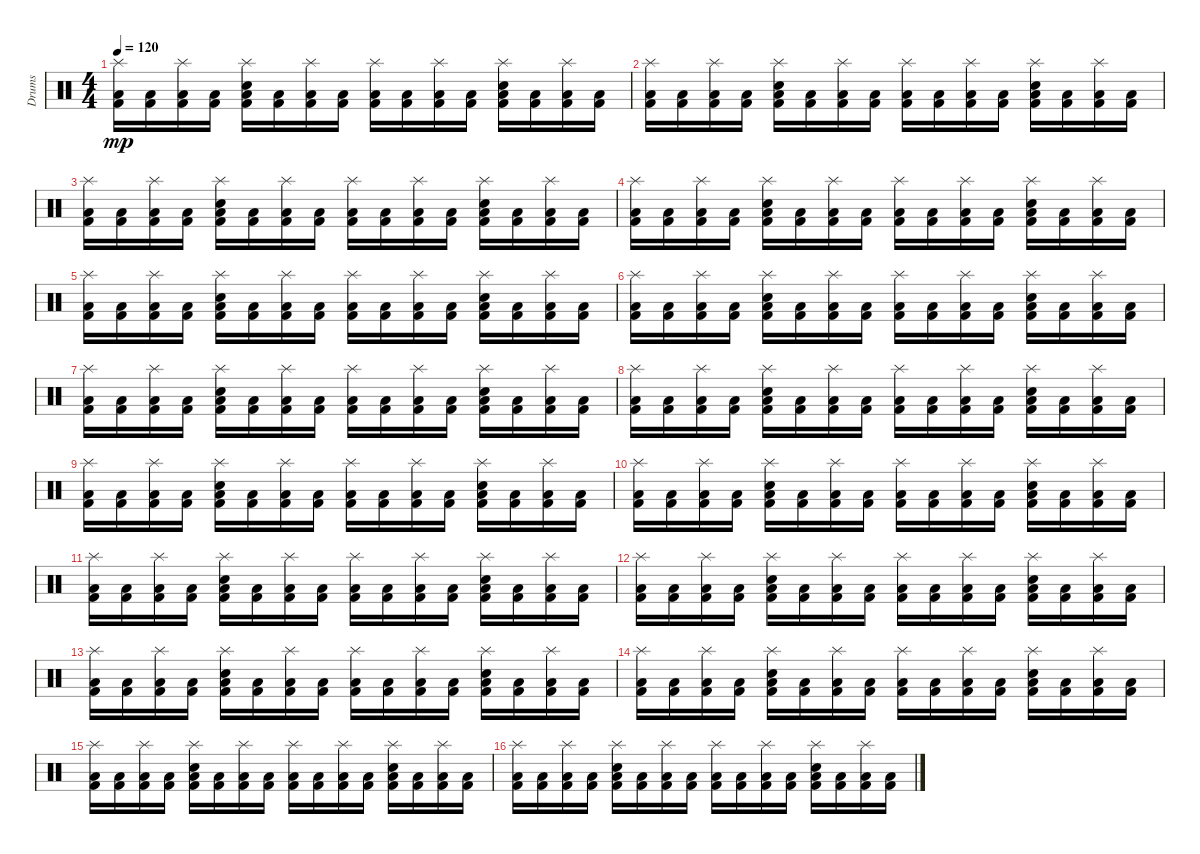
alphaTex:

\track ("Drums" "Drums") {instrument percussion}
\staff {score}
\articulation defaults
\ts (4 4)
\tempo 120
\clef neutral
\ks c
("Splash (hit)" "Low Floor Tom (hit)" "Kick (hit) 2").16{dy mp} ("Low Floor Tom (hit)" "Kick (hit) 2").16 ("Splash (hit)" "Low Floor Tom (hit)" "Kick (hit) 2").16 ("Low Floor Tom (hit)" "Kick (hit) 2").16 ("Splash (hit)" "Snare (hit) 2" "Low Floor Tom (hit)" "Kick (hit) 2").16 ("Low Floor Tom (hit)" "Kick (hit) 2").16 ("Splash (hit)" "Low Floor Tom (hit)" "Kick (hit) 2").16 ("Low Floor Tom (hit)" "Kick (hit) 2").16 ("Splash (hit)" "Low Floor Tom (hit)" "Kick (hit) 2").16 ("Low Floor Tom (hit)" "Kick (hit) 2").16 ("Splash (hit)" "Low Floor Tom (hit)" "Kick (hit) 2").16 ("Low Floor Tom (hit)" "Kick (hit) 2").16 ("Splash (hit)" "Snare (hit) 2" "Low Floor Tom (hit)" "Kick (hit) 2").16 ("Low Floor Tom (hit)" "Kick (hit) 2").16 ("Splash (hit)" "Low Floor Tom (hit)" "Kick (hit) 2").16 ("Low Floor Tom (hit)" "Kick (hit) 2").16 |
("Splash (hit)" "Low Floor Tom (hit)" "Kick (hit) 2").16 ("Low Floor Tom (hit)" "Kick (hit) 2").16 ("Splash (hit)" "Low Floor Tom (hit)" "Kick (hit) 2").16 ("Low Floor Tom (hit)" "Kick (hit) 2").16 ("Splash (hit)" "Snare (hit) 2" "Low Floor Tom (hit)" "Kick (hit) 2").16 ("Low Floor Tom (hit)" "Kick (hit) 2").16 ("Splash (hit)" "Low Floor Tom (hit)" "Kick (hit) 2").16 ("Low Floor Tom (hit)" "Kick (hit) 2").16 ("Splash (hit)" "Low Floor Tom (hit)" "Kick (hit) 2").16 ("Low Floor Tom (hit)" "Kick (hit) 2").16 ("Splash (hit)" "Low Floor Tom (hit)" "Kick (hit) 2").16 ("Low Floor Tom (hit)" "Kick (hit) 2").16 ("Splash (hit)" "Snare (hit) 2" "Low Floor Tom (hit)" "Kick (hit) 2").16 ("Low Floor Tom (hit)" "Kick (hit) 2").16 ("Splash (hit)" "Low Floor Tom (hit)" "Kick (hit) 2").16 ("Low Floor Tom (hit)" "Kick (hit) 2").16 |
("Splash (hit)" "Low Floor Tom (hit)" "Kick (hit) 2").16 ("Low Floor Tom (hit)" "Kick (hit) 2").16 ("Splash (hit)" "Low Floor Tom (hit)" "Kick (hit) 2").16 ("Low Floor Tom (hit)" "Kick (hit) 2").16 ("Splash (hit)" "Snare (hit) 2" "Low Floor Tom (hit)" "Kick (hit) 2").16 ("Low Floor Tom (hit)" "Kick (hit) 2").16 ("Splash (hit)" "Low Floor Tom (hit)" "Kick (hit) 2").16 ("Low Floor Tom (hit)" "Kick (hit) 2").16 ("Splash (hit)" "Low Floor Tom (hit)" "Kick (hit) 2").16 ("Low Floor Tom (hit)" "Kick (hit) 2").16 ("Splash (hit)" "Low Floor Tom (hit)" "Kick (hit) 2").16 ("Low Floor Tom (hit)" "Kick (hit) 2").16 ("Splash (hit)" "Snare (hit) 2" "Low Floor Tom (hit)" "Kick (hit) 2").16 ("Low Floor Tom (hit)" "Kick (hit) 2").16 ("Splash (hit)" "Low Floor Tom (hit)" "Kick (hit) 2").16 ("Low Floor Tom (hit)" "Kick (hit) 2").16 |
("Splash (hit)" "Low Floor Tom (hit)" "Kick (hit) 2").16 ("Low Floor Tom (hit)" "Kick (hit) 2").16 ("Splash (hit)" "Low Floor Tom (hit)" "Kick (hit) 2").16 ("Low Floor Tom (hit)" "Kick (hit) 2").16 ("Splash (hit)" "Snare (hit) 2" "Low Floor Tom (hit)" "Kick (hit) 2").16 ("Low Floor Tom (hit)" "Kick (hit) 2").16 ("Splash (hit)" "Low Floor Tom (hit)" "Kick (hit) 2").16 ("Low Floor Tom (hit)" "Kick (hit) 2").16 ("Splash (hit)" "Low Floor Tom (hit)" "Kick (hit) 2").16 ("Low Floor Tom (hit)" "Kick (hit) 2").16 ("Splash (hit)" "Low Floor Tom (hit)" "Kick (hit) 2").16 ("Low Floor Tom (hit)" "Kick (hit) 2").16 ("Splash (hit)" "Snare (hit) 2" "Low Floor Tom (hit)" "Kick (hit) 2").16 ("Low Floor Tom (hit)" "Kick (hit) 2").16 ("Splash (hit)" "Low Floor Tom (hit)" "Kick (hit) 2").16 ("Low Floor Tom (hit)" "Kick (hit) 2").16 |
("Splash (hit)" "Low Floor Tom (hit)" "Kick (hit) 2").16 ("Low Floor Tom (hit)" "Kick (hit) 2").16 ("Splash (hit)" "Low Floor Tom (hit)" "Kick (hit) 2").16 ("Low Floor Tom (hit)" "Kick (hit) 2").16 ("Splash (hit)" "Snare (hit) 2" "Low Floor Tom (hit)" "Kick (hit) 2").16 ("Low Floor Tom (hit)" "Kick (hit) 2").16 ("Splash (hit)" "Low Floor Tom (hit)" "Kick (hit) 2").16 ("Low Floor Tom (hit)" "Kick (hit) 2").16 ("Splash (hit)" "Low Floor Tom (hit)" "Kick (hit) 2").16 ("Low Floor Tom (hit)" "Kick (hit) 2").16 ("Splash (hit)" "Low Floor Tom (hit)" "Kick (hit) 2").16 ("Low Floor Tom (hit)" "Kick (hit) 2").16 ("Splash (hit)" "Snare (hit) 2" "Low Floor Tom (hit)" "Kick (hit) 2").16 ("Low Floor Tom (hit)" "Kick (hit) 2").16 ("Splash (hit)" "Low Floor Tom (hit)" "Kick (hit) 2").16 ("Low Floor Tom (hit)" "Kick (hit) 2").16 |
("Splash (hit)" "Low Floor Tom (hit)" "Kick (hit) 2").16 ("Low Floor Tom (hit)" "Kick (hit) 2").16 ("Splash (hit)" "Low Floor Tom (hit)" "Kick (hit) 2").16 ("Low Floor Tom (hit)" "Kick (hit) 2").16 ("Splash (hit)" "Snare (hit) 2" "Low Floor Tom (hit)" "Kick (hit) 2").16 ("Low Floor Tom (hit)" "Kick (hit) 2").16 ("Splash (hit)" "Low Floor Tom (hit)" "Kick (hit) 2").16 ("Low Floor Tom (hit)" "Kick (hit) 2").16 ("Splash (hit)" "Low Floor Tom (hit)" "Kick (hit) 2").16 ("Low Floor Tom (hit)" "Kick (hit) 2").16 ("Splash (hit)" "Low Floor Tom (hit)" "Kick (hit) 2").16 ("Low Floor Tom (hit)" "Kick (hit) 2").16 ("Splash (hit)" "Snare (hit) 2" "Low Floor Tom (hit)" "Kick (hit) 2").16 ("Low Floor Tom (hit)" "Kick (hit) 2").16 ("Splash (hit)" "Low Floor Tom (hit)" "Kick (hit) 2").16 ("Low Floor Tom (hit)" "Kick (hit) 2").16 |
("Splash (hit)" "Low Floor Tom (hit)" "Kick (hit) 2").16 ("Low Floor Tom (hit)" "Kick (hit) 2").16 ("Splash (hit)" "Low Floor Tom (hit)" "Kick (hit) 2").16 ("Low Floor Tom (hit)" "Kick (hit) 2").16 ("Splash (hit)" "Snare (hit) 2" "Low Floor Tom (hit)" "Kick (hit) 2").16 ("Low Floor Tom (hit)" "Kick (hit) 2").16 ("Splash (hit)" "Low Floor Tom (hit)" "Kick (hit) 2").16 ("Low Floor Tom (hit)" "Kick (hit) 2").16 ("Splash (hit)" "Low Floor Tom (hit)" "Kick (hit) 2").16 ("Low Floor Tom (hit)" "Kick (hit) 2").16 ("Splash (hit)" "Low Floor Tom (hit)" "Kick (hit) 2").16 ("Low Floor Tom (hit)" "Kick (hit) 2").16 ("Splash (hit)" "Snare (hit) 2" "Low Floor Tom (hit)" "Kick (hit) 2").16 ("Low Floor Tom (hit)" "Kick (hit) 2").16 ("Splash (hit)" "Low Floor Tom (hit)" "Kick (hit) 2").16 ("Low Floor Tom (hit)" "Kick (hit) 2").16 |
("Splash (hit)" "Low Floor Tom (hit)" "Kick (hit) 2").16 ("Low Floor Tom (hit)" "Kick (hit) 2").16 ("Splash (hit)" "Low Floor Tom (hit)" "Kick (hit) 2").16 ("Low Floor Tom (hit)" "Kick (hit) 2").16 ("Splash (hit)" "Snare (hit) 2" "Low Floor Tom (hit)" "Kick (hit) 2").16 ("Low Floor Tom (hit)" "Kick (hit) 2").16 ("Splash (hit)" "Low Floor Tom (hit)" "Kick (hit) 2").16 ("Low Floor Tom (hit)" "Kick (hit) 2").16 ("Splash (hit)" "Low Floor Tom (hit)" "Kick (hit) 2").16 ("Low Floor Tom (hit)" "Kick (hit) 2").16 ("Splash (hit)" "Low Floor Tom (hit)" "Kick (hit) 2").16 ("Low Floor Tom (hit)" "Kick (hit) 2").16 ("Splash (hit)" "Snare (hit) 2" "Low Floor Tom (hit)" "Kick (hit) 2").16 ("Low Floor Tom (hit)" "Kick (hit) 2").16 ("Splash (hit)" "Low Floor Tom (hit)" "Kick (hit) 2").16 ("Low Floor Tom (hit)" "Kick (hit) 2").16 |
("Splash (hit)" "Low Floor Tom (hit)" "Kick (hit) 2").16 ("Low Floor Tom (hit)" "Kick (hit) 2").16 ("Splash (hit)" "Low Floor Tom (hit)" "Kick (hit) 2").16 ("Low Floor Tom (hit)" "Kick (hit) 2").16 ("Splash (hit)" "Snare (hit) 2" "Low Floor Tom (hit)" "Kick (hit) 2").16 ("Low Floor Tom (hit)" "Kick (hit) 2").16 ("Splash (hit)" "Low Floor Tom (hit)" "Kick (hit) 2").16 ("Low Floor Tom (hit)" "Kick (hit) 2").16 ("Splash (hit)" "Low Floor Tom (hit)" "Kick (hit) 2").16 ("Low Floor Tom (hit)" "Kick (hit) 2").16 ("Splash (hit)" "Low Floor Tom (hit)" "Kick (hit) 2").16 ("Low Floor Tom (hit)" "Kick (hit) 2").16 ("Splash (hit)" "Snare (hit) 2" "Low Floor Tom (hit)" "Kick (hit) 2").16 ("Low Floor Tom (hit)" "Kick (hit) 2").16 ("Splash (hit)" "Low Floor Tom (hit)" "Kick (hit) 2").16 ("Low Floor Tom (hit)" "Kick (hit) 2").16 |
("Splash (hit)" "Low Floor Tom (hit)" "Kick (hit) 2").16 ("Low Floor Tom (hit)" "Kick (hit) 2").16 ("Splash (hit)" "Low Floor Tom (hit)" "Kick (hit) 2").16 ("Low Floor Tom (hit)" "Kick (hit) 2").16 ("Splash (hit)" "Snare (hit) 2" "Low Floor Tom (hit)" "Kick (hit) 2").16 ("Low Floor Tom (hit)" "Kick (hit) 2").16 ("Splash (hit)" "Low Floor Tom (hit)" "Kick (hit) 2").16 ("Low Floor Tom (hit)" "Kick (hit) 2").16 ("Splash (hit)" "Low Floor Tom (hit)" "Kick (hit) 2").16 ("Low Floor Tom (hit)" "Kick (hit) 2").16 ("Splash (hit)" "Low Floor Tom (hit)" "Kick (hit) 2").16 ("Low Floor Tom (hit)" "Kick (hit) 2").16 ("Splash (hit)" "Snare (hit) 2" "Low Floor Tom (hit)" "Kick (hit) 2").16 ("Low Floor Tom (hit)" "Kick (hit) 2").16 ("Splash (hit)" "Low Floor Tom (hit)" "Kick (hit) 2").16 ("Low Floor Tom (hit)" "Kick (hit) 2").16 |
("Splash (hit)" "Low Floor Tom (hit)" "Kick (hit) 2").16 ("Low Floor Tom (hit)" "Kick (hit) 2").16 ("Splash (hit)" "Low Floor Tom (hit)" "Kick (hit) 2").16 ("Low Floor Tom (hit)" "Kick (hit) 2").16 ("Splash (hit)" "Snare (hit) 2" "Low Floor Tom (hit)" "Kick (hit) 2").16 ("Low Floor Tom (hit)" "Kick (hit) 2").16 ("Splash (hit)" "Low Floor Tom (hit)" "Kick (hit) 2").16 ("Low Floor Tom (hit)" "Kick (hit) 2").16 ("Splash (hit)" "Low Floor Tom (hit)" "Kick (hit) 2").16 ("Low Floor Tom (hit)" "Kick (hit) 2").16 ("Splash (hit)" "Low Floor Tom (hit)" "Kick (hit) 2").16 ("Low Floor Tom (hit)" "Kick (hit) 2").16 ("Splash (hit)" "Snare (hit) 2" "Low Floor Tom (hit)" "Kick (hit) 2").16 ("Low Floor Tom (hit)" "Kick (hit) 2").16 ("Splash (hit)" "Low Floor Tom (hit)" "Kick (hit) 2").16 ("Low Floor Tom (hit)" "Kick (hit) 2").16 |
("Splash (hit)" "Low Floor Tom (hit)" "Kick (hit) 2").16 ("Low Floor Tom (hit)" "Kick (hit) 2").16 ("Splash (hit)" "Low Floor Tom (hit)" "Kick (hit) 2").16 ("Low Floor Tom (hit)" "Kick (hit) 2").16 ("Splash (hit)" "Snare (hit) 2" "Low Floor Tom (hit)" "Kick (hit) 2").16 ("Low Floor Tom (hit)" "Kick (hit) 2").16 ("Splash (hit)" "Low Floor Tom (hit)" "Kick (hit) 2").16 ("Low Floor Tom (hit)" "Kick (hit) 2").16 ("Splash (hit)" "Low Floor Tom (hit)" "Kick (hit) 2").16 ("Low Floor Tom (hit)" "Kick (hit) 2").16 ("Splash (hit)" "Low Floor Tom (hit)" "Kick (hit) 2").16 ("Low Floor Tom (hit)" "Kick (hit) 2").16 ("Splash (hit)" "Snare (hit) 2" "Low Floor Tom (hit)" "Kick (hit) 2").16 ("Low Floor Tom (hit)" "Kick (hit) 2").16 ("Splash (hit)" "Low Floor Tom (hit)" "Kick (hit) 2").16 ("Low Floor Tom (hit)" "Kick (hit) 2").16 |
("Splash (hit)" "Low Floor Tom (hit)" "Kick (hit) 2").16 ("Low Floor Tom (hit)" "Kick (hit) 2").16 ("Splash (hit)" "Low Floor Tom (hit)" "Kick (hit) 2").16 ("Low Floor Tom (hit)" "Kick (hit) 2").16 ("Splash (hit)" "Snare (hit) 2" "Low Floor Tom (hit)" "Kick (hit) 2").16 ("Low Floor Tom (hit)" "Kick (hit) 2").16 ("Splash (hit)" "Low Floor Tom (hit)" "Kick (hit) 2").16 ("Low Floor Tom (hit)" "Kick (hit) 2").16 ("Splash (hit)" "Low Floor Tom (hit)" "Kick (hit) 2").16 ("Low Floor Tom (hit)" "Kick (hit) 2").16 ("Splash (hit)" "Low Floor Tom (hit)" "Kick (hit) 2").16 ("Low Floor Tom (hit)" "Kick (hit) 2").16 ("Splash (hit)" "Snare (hit) 2" "Low Floor Tom (hit)" "Kick (hit) 2").16 ("Low Floor Tom (hit)" "Kick (hit) 2").16 ("Splash (hit)" "Low Floor Tom (hit)" "Kick (hit) 2").16 ("Low Floor Tom (hit)" "Kick (hit) 2").16 |
("Splash (hit)" "Low Floor Tom (hit)" "Kick (hit) 2").16 ("Low Floor Tom (hit)" "Kick (hit) 2").16 ("Splash (hit)" "Low Floor Tom (hit)" "Kick (hit) 2").16 ("Low Floor Tom (hit)" "Kick (hit) 2").16 ("Splash (hit)" "Snare (hit) 2" "Low Floor Tom (hit)" "Kick (hit) 2").16 ("Low Floor Tom (hit)" "Kick (hit) 2").16 ("Splash (hit)" "Low Floor Tom (hit)" "Kick (hit) 2").16 ("Low Floor Tom (hit)" "Kick (hit) 2").16 ("Splash (hit)" "Low Floor Tom (hit)" "Kick (hit) 2").16 ("Low Floor Tom (hit)" "Kick (hit) 2").16 ("Splash (hit)" "Low Floor Tom (hit)" "Kick (hit) 2").16 ("Low Floor Tom (hit)" "Kick (hit) 2").16 ("Splash (hit)" "Snare (hit) 2" "Low Floor Tom (hit)" "Kick (hit) 2").16 ("Low Floor Tom (hit)" "Kick (hit) 2").16 ("Splash (hit)" "Low Floor Tom (hit)" "Kick (hit) 2").16 ("Low Floor Tom (hit)" "Kick (hit) 2").16 |
("Splash (hit)" "Low Floor Tom (hit)" "Kick (hit) 2").16 ("Low Floor Tom (hit)" "Kick (hit) 2").16 ("Splash (hit)" "Low Floor Tom (hit)" "Kick (hit) 2").16 ("Low Floor Tom (hit)" "Kick (hit) 2").16 ("Splash (hit)" "Snare (hit) 2" "Low Floor Tom (hit)" "Kick (hit) 2").16 ("Low Floor Tom (hit)" "Kick (hit) 2").16 ("Splash (hit)" "Low Floor Tom (hit)" "Kick (hit) 2").16 ("Low Floor Tom (hit)" "Kick (hit) 2").16 ("Splash (hit)" "Low Floor Tom (hit)" "Kick (hit) 2").16 ("Low Floor Tom (hit)" "Kick (hit) 2").16 ("Splash (hit)" "Low Floor Tom (hit)" "Kick (hit) 2").16 ("Low Floor Tom (hit)" "Kick (hit) 2").16 ("Splash (hit)" "Snare (hit) 2" "Low Floor Tom (hit)" "Kick (hit) 2").16 ("Low Floor Tom (hit)" "Kick (hit) 2").16 ("Splash (hit)" "Low Floor Tom (hit)" "Kick (hit) 2").16 ("Low Floor Tom (hit)" "Kick (hit) 2").16 |
("Splash (hit)" "Low Floor Tom (hit)" "Kick (hit) 2").16 ("Low Floor Tom (hit)" "Kick (hit) 2").16 ("Splash (hit)" "Low Floor Tom (hit)" "Kick (hit) 2").16 ("Low Floor Tom (hit)" "Kick (hit) 2").16 ("Splash (hit)" "Snare (hit) 2" "Low Floor Tom (hit)" "Kick (hit) 2").16 ("Low Floor Tom (hit)" "Kick (hit) 2").16 ("Splash (hit)" "Low Floor Tom (hit)" "Kick (hit) 2").16 ("Low Floor Tom (hit)" "Kick (hit) 2").16 ("Splash (hit)" "Low Floor Tom (hit)" "Kick (hit) 2").16 ("Low Floor Tom (hit)" "Kick (hit) 2").16 ("Splash (hit)" "Low Floor Tom (hit)" "Kick (hit) 2").16 ("Low Floor Tom (hit)" "Kick (hit) 2").16 ("Splash (hit)" "Snare (hit) 2" "Low Floor Tom (hit)" "Kick (hit) 2").16 ("Low Floor Tom (hit)" "Kick (hit) 2").16 ("Splash (hit)" "Low Floor Tom (hit)" "Kick (hit) 2").16 ("Low Floor Tom (hit)" "Kick (hit) 2").16
